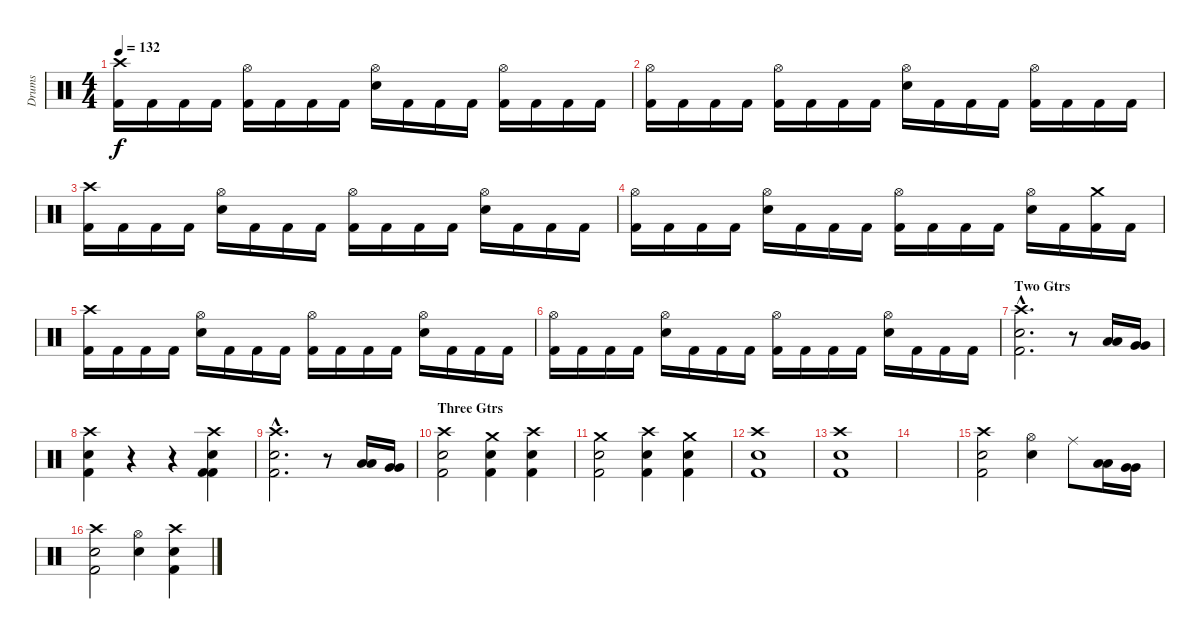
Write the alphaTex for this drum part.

\track ("Drums" "Drums") {instrument percussion}
\staff {score}
\articulation defaults
\ts (4 4)
\tempo 132
\clef neutral
\ks c
("Crash high (hit)" "Kick (hit) 2").16{dy f} "Kick (hit) 2".16 "Kick (hit) 2".16 "Kick (hit) 2".16 ("Hi-Hat (open)" "Kick (hit) 2").16 "Kick (hit) 2".16 "Kick (hit) 2".16 "Kick (hit) 2".16 ("Hi-Hat (open)" "Snare (hit) 2").16 "Kick (hit) 2".16 "Kick (hit) 2".16 "Kick (hit) 2".16 ("Hi-Hat (open)" "Kick (hit) 2").16 "Kick (hit) 2".16 "Kick (hit) 2".16 "Kick (hit) 2".16 |
("Hi-Hat (open)" "Kick (hit) 2").16 "Kick (hit) 2".16 "Kick (hit) 2".16 "Kick (hit) 2".16 ("Hi-Hat (open)" "Kick (hit) 2").16 "Kick (hit) 2".16 "Kick (hit) 2".16 "Kick (hit) 2".16 ("Hi-Hat (open)" "Snare (hit) 2").16 "Kick (hit) 2".16 "Kick (hit) 2".16 "Kick (hit) 2".16 ("Hi-Hat (open)" "Kick (hit) 2").16 "Kick (hit) 2".16 "Kick (hit) 2".16 "Kick (hit) 2".16 |
("Crash high (hit)" "Kick (hit) 2").16 "Kick (hit) 2".16 "Kick (hit) 2".16 "Kick (hit) 2".16 ("Hi-Hat (open)" "Snare (hit) 2").16 "Kick (hit) 2".16 "Kick (hit) 2".16 "Kick (hit) 2".16 ("Hi-Hat (open)" "Kick (hit) 2").16 "Kick (hit) 2".16 "Kick (hit) 2".16 "Kick (hit) 2".16 ("Hi-Hat (open)" "Snare (hit) 2").16 "Kick (hit) 2".16 "Kick (hit) 2".16 "Kick (hit) 2".16 |
("Hi-Hat (open)" "Kick (hit) 2").16 "Kick (hit) 2".16 "Kick (hit) 2".16 "Kick (hit) 2".16 ("Hi-Hat (open)" "Snare (hit) 2").16 "Kick (hit) 2".16 "Kick (hit) 2".16 "Kick (hit) 2".16 ("Hi-Hat (open)" "Kick (hit) 2").16 "Kick (hit) 2".16 "Kick (hit) 2".16 "Kick (hit) 2".16 ("Hi-Hat (open)" "Snare (hit) 2").16 "Kick (hit) 2".16 ("Crash medium (hit)" "Kick (hit) 2").16 "Kick (hit) 2".16 |
("Crash high (hit)" "Kick (hit) 2").16 "Kick (hit) 2".16 "Kick (hit) 2".16 "Kick (hit) 2".16 ("Hi-Hat (open)" "Snare (hit) 2").16 "Kick (hit) 2".16 "Kick (hit) 2".16 "Kick (hit) 2".16 ("Hi-Hat (open)" "Kick (hit) 2").16 "Kick (hit) 2".16 "Kick (hit) 2".16 "Kick (hit) 2".16 ("Hi-Hat (open)" "Snare (hit) 2").16 "Kick (hit) 2".16 "Kick (hit) 2".16 "Kick (hit) 2".16 |
("Hi-Hat (open)" "Kick (hit) 2").16 "Kick (hit) 2".16 "Kick (hit) 2".16 "Kick (hit) 2".16 ("Hi-Hat (open)" "Snare (hit) 2").16 "Kick (hit) 2".16 "Kick (hit) 2".16 "Kick (hit) 2".16 ("Hi-Hat (open)" "Kick (hit) 2").16 "Kick (hit) 2".16 "Kick (hit) 2".16 "Kick (hit) 2".16 ("Hi-Hat (open)" "Snare (hit) 2").16 "Kick (hit) 2".16 "Kick (hit) 2".16 "Kick (hit) 2".16 |
\section ("" "Two Gtrs")
("Crash high (hit)"{hac} "Snare (hit) 2"{hac} "Kick (hit) 2"{hac}).2{d} r.8 ("Low Tom (hit)" "Low Tom (hit)").16 ("Very Low Tom (hit)" "Very Low Tom (hit)").16 |
("Crash high (hit)" "Snare (hit) 2" "Kick (hit) 2").4 r.4 r.4 ("Crash high (hit)" "Snare (hit) 2" "Kick (hit) 2" "Kick (hit) 2").4 |
("Crash high (hit)"{hac} "Snare (hit) 2"{hac} "Kick (hit) 2"{hac}).2{d} r.8 ("Low Tom (hit)" "Low Tom (hit)").16 ("Very Low Tom (hit)" "Very Low Tom (hit)").16 |
\section ("" "Three Gtrs")
("Crash high (hit)" "Snare (hit) 2" "Kick (hit) 2").2 ("Crash medium (hit)" "Snare (hit) 2" "Kick (hit) 2").4 ("Crash high (hit)" "Snare (hit) 2" "Kick (hit) 2").4 |
("Crash medium (hit)" "Snare (hit) 2" "Kick (hit) 2").2 ("Crash high (hit)" "Snare (hit) 2" "Kick (hit) 2").4 ("Crash medium (hit)" "Snare (hit) 2" "Kick (hit) 2").4 |
("Crash high (hit)" "Snare (hit) 2" "Kick (hit) 2").1 |
("Crash high (hit)" "Snare (hit) 2" "Kick (hit) 2").1 |
|
("Crash high (hit)" "Snare (hit) 2" "Kick (hit) 2").2 ("Hi-Hat (open)" "Snare (hit) 2").4 "Ride (middle)".8 ("Low Tom (hit)" "Low Tom (hit)").16 ("Very Low Tom (hit)" "Very Low Tom (hit)").16 |
("Crash high (hit)" "Snare (hit) 2" "Kick (hit) 2").2 ("Hi-Hat (open)" "Snare (hit) 2").4 ("Crash high (hit)" "Snare (hit) 2" "Kick (hit) 2").4
